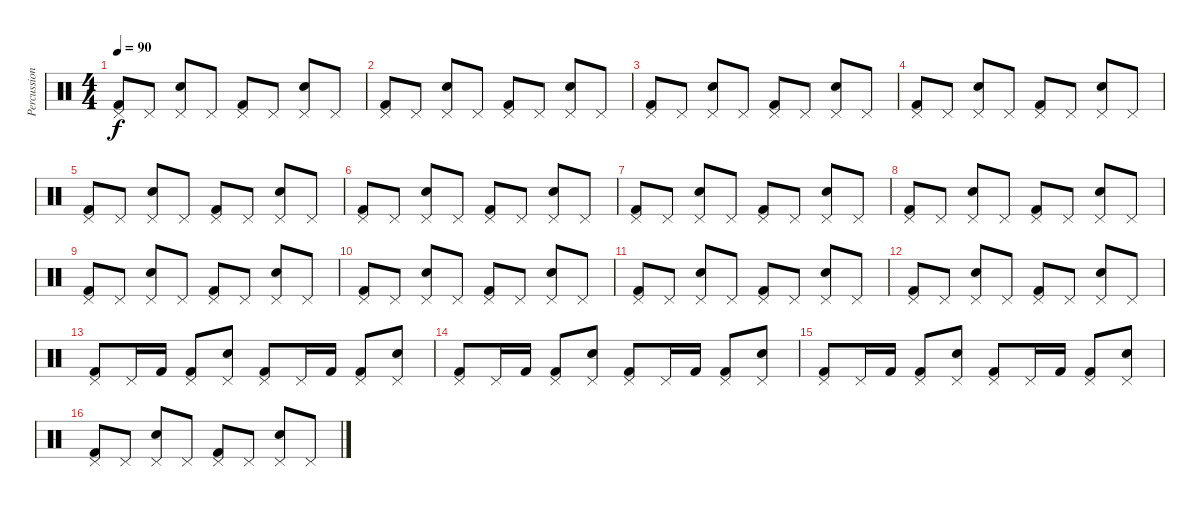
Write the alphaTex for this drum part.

\track ("Percussion" "Percussion") {instrument percussion}
\staff {score}
\articulation defaults
\ts (4 4)
\tempo 90
\clef neutral
\ks c
("Pedal Hi-Hat (hit)" "Kick (hit) 2").8{dy f} "Pedal Hi-Hat (hit)".8 ("Pedal Hi-Hat (hit)" "Snare (hit) 2").8 "Pedal Hi-Hat (hit)".8 ("Pedal Hi-Hat (hit)" "Kick (hit) 2").8 "Pedal Hi-Hat (hit)".8 ("Pedal Hi-Hat (hit)" "Snare (hit) 2").8 "Pedal Hi-Hat (hit)".8 |
("Pedal Hi-Hat (hit)" "Kick (hit) 2").8 "Pedal Hi-Hat (hit)".8 ("Pedal Hi-Hat (hit)" "Snare (hit) 2").8 "Pedal Hi-Hat (hit)".8 ("Pedal Hi-Hat (hit)" "Kick (hit) 2").8 "Pedal Hi-Hat (hit)".8 ("Pedal Hi-Hat (hit)" "Snare (hit) 2").8 "Pedal Hi-Hat (hit)".8 |
("Pedal Hi-Hat (hit)" "Kick (hit) 2").8 "Pedal Hi-Hat (hit)".8 ("Pedal Hi-Hat (hit)" "Snare (hit) 2").8 "Pedal Hi-Hat (hit)".8 ("Pedal Hi-Hat (hit)" "Kick (hit) 2").8 "Pedal Hi-Hat (hit)".8 ("Pedal Hi-Hat (hit)" "Snare (hit) 2").8 "Pedal Hi-Hat (hit)".8 |
("Pedal Hi-Hat (hit)" "Kick (hit) 2").8 "Pedal Hi-Hat (hit)".8 ("Pedal Hi-Hat (hit)" "Snare (hit) 2").8 "Pedal Hi-Hat (hit)".8 ("Pedal Hi-Hat (hit)" "Kick (hit) 2").8 "Pedal Hi-Hat (hit)".8 ("Pedal Hi-Hat (hit)" "Snare (hit) 2").8 "Pedal Hi-Hat (hit)".8 |
("Pedal Hi-Hat (hit)" "Kick (hit) 2").8 "Pedal Hi-Hat (hit)".8 ("Pedal Hi-Hat (hit)" "Snare (hit) 2").8 "Pedal Hi-Hat (hit)".8 ("Pedal Hi-Hat (hit)" "Kick (hit) 2").8 "Pedal Hi-Hat (hit)".8 ("Pedal Hi-Hat (hit)" "Snare (hit) 2").8 "Pedal Hi-Hat (hit)".8 |
("Pedal Hi-Hat (hit)" "Kick (hit) 2").8 "Pedal Hi-Hat (hit)".8 ("Pedal Hi-Hat (hit)" "Snare (hit) 2").8 "Pedal Hi-Hat (hit)".8 ("Pedal Hi-Hat (hit)" "Kick (hit) 2").8 "Pedal Hi-Hat (hit)".8 ("Pedal Hi-Hat (hit)" "Snare (hit) 2").8 "Pedal Hi-Hat (hit)".8 |
("Pedal Hi-Hat (hit)" "Kick (hit) 2").8 "Pedal Hi-Hat (hit)".8 ("Pedal Hi-Hat (hit)" "Snare (hit) 2").8 "Pedal Hi-Hat (hit)".8 ("Pedal Hi-Hat (hit)" "Kick (hit) 2").8 "Pedal Hi-Hat (hit)".8 ("Pedal Hi-Hat (hit)" "Snare (hit) 2").8 "Pedal Hi-Hat (hit)".8 |
("Pedal Hi-Hat (hit)" "Kick (hit) 2").8 "Pedal Hi-Hat (hit)".8 ("Pedal Hi-Hat (hit)" "Snare (hit) 2").8 "Pedal Hi-Hat (hit)".8 ("Pedal Hi-Hat (hit)" "Kick (hit) 2").8 "Pedal Hi-Hat (hit)".8 ("Pedal Hi-Hat (hit)" "Snare (hit) 2").8 "Pedal Hi-Hat (hit)".8 |
("Pedal Hi-Hat (hit)" "Kick (hit) 2").8 "Pedal Hi-Hat (hit)".8 ("Pedal Hi-Hat (hit)" "Snare (hit) 2").8 "Pedal Hi-Hat (hit)".8 ("Pedal Hi-Hat (hit)" "Kick (hit) 2").8 "Pedal Hi-Hat (hit)".8 ("Pedal Hi-Hat (hit)" "Snare (hit) 2").8 "Pedal Hi-Hat (hit)".8 |
("Pedal Hi-Hat (hit)" "Kick (hit) 2").8 "Pedal Hi-Hat (hit)".8 ("Pedal Hi-Hat (hit)" "Snare (hit) 2").8 "Pedal Hi-Hat (hit)".8 ("Pedal Hi-Hat (hit)" "Kick (hit) 2").8 "Pedal Hi-Hat (hit)".8 ("Pedal Hi-Hat (hit)" "Snare (hit) 2").8 "Pedal Hi-Hat (hit)".8 |
("Pedal Hi-Hat (hit)" "Kick (hit) 2").8 "Pedal Hi-Hat (hit)".8 ("Pedal Hi-Hat (hit)" "Snare (hit) 2").8 "Pedal Hi-Hat (hit)".8 ("Pedal Hi-Hat (hit)" "Kick (hit) 2").8 "Pedal Hi-Hat (hit)".8 ("Pedal Hi-Hat (hit)" "Snare (hit) 2").8 "Pedal Hi-Hat (hit)".8 |
("Pedal Hi-Hat (hit)" "Kick (hit) 2").8 "Pedal Hi-Hat (hit)".8 ("Pedal Hi-Hat (hit)" "Snare (hit) 2").8 "Pedal Hi-Hat (hit)".8 ("Pedal Hi-Hat (hit)" "Kick (hit) 2").8 "Pedal Hi-Hat (hit)".8 ("Pedal Hi-Hat (hit)" "Snare (hit) 2").8 "Pedal Hi-Hat (hit)".8 |
("Pedal Hi-Hat (hit)" "Kick (hit) 2").8 "Pedal Hi-Hat (hit)".16 "Kick (hit) 2".16 ("Pedal Hi-Hat (hit)" "Kick (hit) 2").8 ("Pedal Hi-Hat (hit)" "Snare (hit) 2").8 ("Pedal Hi-Hat (hit)" "Kick (hit) 2").8 "Pedal Hi-Hat (hit)".16 "Kick (hit) 2".16 ("Pedal Hi-Hat (hit)" "Kick (hit) 2").8 ("Pedal Hi-Hat (hit)" "Snare (hit) 2").8 |
("Pedal Hi-Hat (hit)" "Kick (hit) 2").8 "Pedal Hi-Hat (hit)".16 "Kick (hit) 2".16 ("Pedal Hi-Hat (hit)" "Kick (hit) 2").8 ("Pedal Hi-Hat (hit)" "Snare (hit) 2").8 ("Pedal Hi-Hat (hit)" "Kick (hit) 2").8 "Pedal Hi-Hat (hit)".16 "Kick (hit) 2".16 ("Pedal Hi-Hat (hit)" "Kick (hit) 2").8 ("Pedal Hi-Hat (hit)" "Snare (hit) 2").8 |
("Pedal Hi-Hat (hit)" "Kick (hit) 2").8 "Pedal Hi-Hat (hit)".16 "Kick (hit) 2".16 ("Pedal Hi-Hat (hit)" "Kick (hit) 2").8 ("Pedal Hi-Hat (hit)" "Snare (hit) 2").8 ("Pedal Hi-Hat (hit)" "Kick (hit) 2").8 "Pedal Hi-Hat (hit)".16 "Kick (hit) 2".16 ("Pedal Hi-Hat (hit)" "Kick (hit) 2").8 ("Pedal Hi-Hat (hit)" "Snare (hit) 2").8 |
("Pedal Hi-Hat (hit)" "Kick (hit) 2").8 "Pedal Hi-Hat (hit)".8 ("Pedal Hi-Hat (hit)" "Snare (hit) 2").8 "Pedal Hi-Hat (hit)".8 ("Pedal Hi-Hat (hit)" "Kick (hit) 2").8 "Pedal Hi-Hat (hit)".8 ("Pedal Hi-Hat (hit)" "Snare (hit) 2").8 "Pedal Hi-Hat (hit)".8
